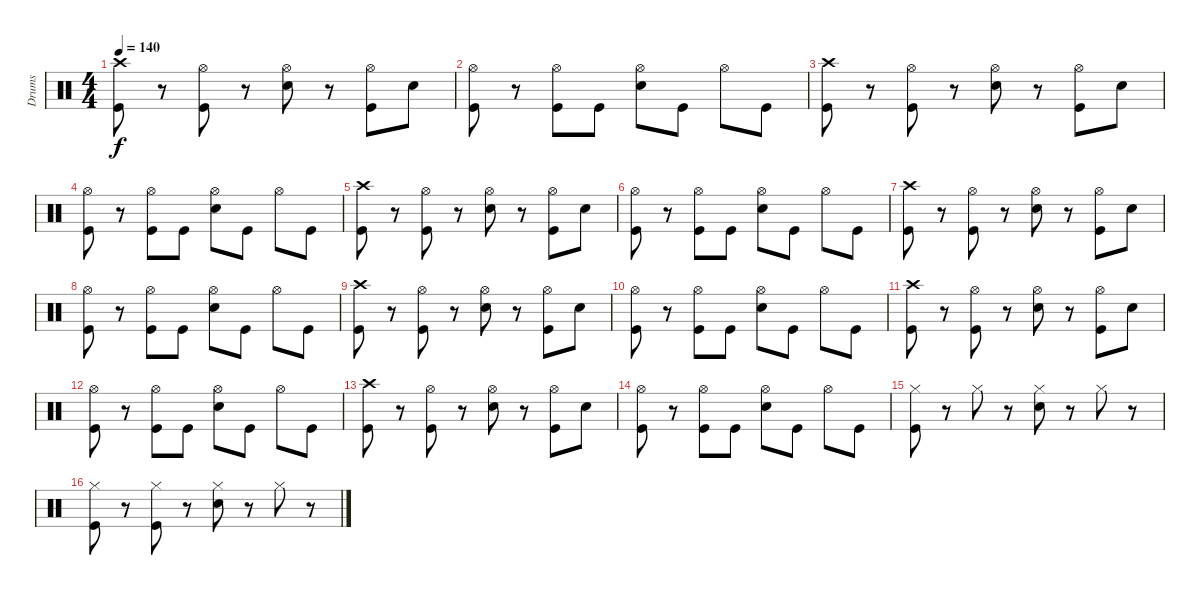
\track ("Drums" "Drums") {instrument percussion}
\staff {score}
\articulation defaults
\ts (4 4)
\tempo 140
\clef neutral
\ks c
("Crash high (hit)" "Kick (hit)").8{dy f} r.8 ("Hi-Hat (open)" "Kick (hit)").8 r.8 ("Hi-Hat (open)" "Snare (hit) 2").8 r.8 ("Hi-Hat (open)" "Kick (hit)").8 "Snare (hit) 2".8 |
("Hi-Hat (open)" "Kick (hit)").8 r.8 ("Hi-Hat (open)" "Kick (hit)").8 "Kick (hit)".8 ("Hi-Hat (open)" "Snare (hit) 2").8 "Kick (hit)".8 "Hi-Hat (open)".8 "Kick (hit)".8 |
("Crash high (hit)" "Kick (hit)").8 r.8 ("Hi-Hat (open)" "Kick (hit)").8 r.8 ("Hi-Hat (open)" "Snare (hit) 2").8 r.8 ("Hi-Hat (open)" "Kick (hit)").8 "Snare (hit) 2".8 |
("Hi-Hat (open)" "Kick (hit)").8 r.8 ("Hi-Hat (open)" "Kick (hit)").8 "Kick (hit)".8 ("Hi-Hat (open)" "Snare (hit) 2").8 "Kick (hit)".8 "Hi-Hat (open)".8 "Kick (hit)".8 |
("Crash high (hit)" "Kick (hit)").8 r.8 ("Hi-Hat (open)" "Kick (hit)").8 r.8 ("Hi-Hat (open)" "Snare (hit) 2").8 r.8 ("Hi-Hat (open)" "Kick (hit)").8 "Snare (hit) 2".8 |
("Hi-Hat (open)" "Kick (hit)").8 r.8 ("Hi-Hat (open)" "Kick (hit)").8 "Kick (hit)".8 ("Hi-Hat (open)" "Snare (hit) 2").8 "Kick (hit)".8 "Hi-Hat (open)".8 "Kick (hit)".8 |
("Crash high (hit)" "Kick (hit)").8 r.8 ("Hi-Hat (open)" "Kick (hit)").8 r.8 ("Hi-Hat (open)" "Snare (hit) 2").8 r.8 ("Hi-Hat (open)" "Kick (hit)").8 "Snare (hit) 2".8 |
("Hi-Hat (open)" "Kick (hit)").8 r.8 ("Hi-Hat (open)" "Kick (hit)").8 "Kick (hit)".8 ("Hi-Hat (open)" "Snare (hit) 2").8 "Kick (hit)".8 "Hi-Hat (open)".8 "Kick (hit)".8 |
("Crash high (hit)" "Kick (hit)").8 r.8 ("Hi-Hat (open)" "Kick (hit)").8 r.8 ("Hi-Hat (open)" "Snare (hit) 2").8 r.8 ("Hi-Hat (open)" "Kick (hit)").8 "Snare (hit) 2".8 |
("Hi-Hat (open)" "Kick (hit)").8 r.8 ("Hi-Hat (open)" "Kick (hit)").8 "Kick (hit)".8 ("Hi-Hat (open)" "Snare (hit) 2").8 "Kick (hit)".8 "Hi-Hat (open)".8 "Kick (hit)".8 |
("Crash high (hit)" "Kick (hit)").8 r.8 ("Hi-Hat (open)" "Kick (hit)").8 r.8 ("Hi-Hat (open)" "Snare (hit) 2").8 r.8 ("Hi-Hat (open)" "Kick (hit)").8 "Snare (hit) 2".8 |
("Hi-Hat (open)" "Kick (hit)").8 r.8 ("Hi-Hat (open)" "Kick (hit)").8 "Kick (hit)".8 ("Hi-Hat (open)" "Snare (hit) 2").8 "Kick (hit)".8 "Hi-Hat (open)".8 "Kick (hit)".8 |
("Crash high (hit)" "Kick (hit)").8 r.8 ("Hi-Hat (open)" "Kick (hit)").8 r.8 ("Hi-Hat (open)" "Snare (hit) 2").8 r.8 ("Hi-Hat (open)" "Kick (hit)").8 "Snare (hit) 2".8 |
("Hi-Hat (open)" "Kick (hit)").8 r.8 ("Hi-Hat (open)" "Kick (hit)").8 "Kick (hit)".8 ("Hi-Hat (open)" "Snare (hit) 2").8 "Kick (hit)".8 "Hi-Hat (open)".8 "Kick (hit)".8 |
("Hi-Hat (closed)" "Kick (hit)").8 r.8 "Hi-Hat (closed)".8 r.8 ("Hi-Hat (closed)" "Snare (hit) 2").8 r.8 "Hi-Hat (closed)".8 r.8 |
("Hi-Hat (closed)" "Kick (hit)").8 r.8 ("Hi-Hat (closed)" "Kick (hit)").8 r.8 ("Hi-Hat (closed)" "Snare (hit) 2").8 r.8 "Hi-Hat (closed)".8 r.8
